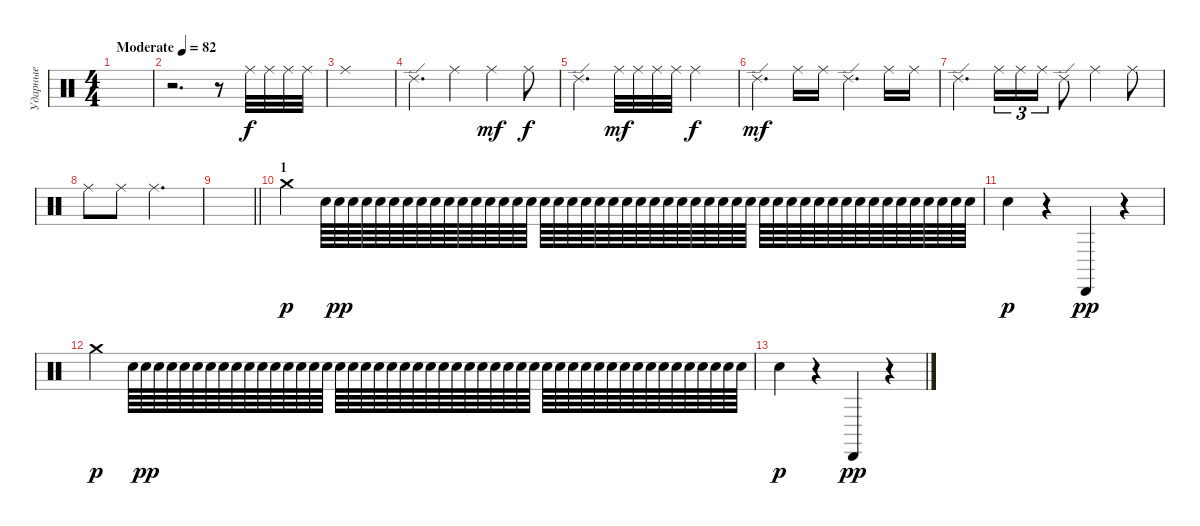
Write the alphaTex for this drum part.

\track ("Ударные" "Ударные") {mute instrument percussion}
\staff {score}
\articulation defaults
\ts (4 4)
\tempo (82 "Moderate")
\clef neutral
\ks c
|
r.2{d} r.8 "Ride (middle)".32 "Ride (middle)".32 "Ride (middle)".32 "Ride (middle)".32 |
"Ride (middle)".1{dy f} |
"Ride (edge) 2".4{d} "Ride (middle)".4 "Ride (middle)".4{dy mf} "Ride (middle)".8{dy f} |
"Ride (edge) 2".4{d} "Ride (middle)".32{dy mf} "Ride (middle)".32 "Ride (middle)".32 "Ride (middle)".32 "Ride (middle)".2{dy f} |
"Ride (edge) 2".4{d dy mf} "Ride (middle)".16 "Ride (middle)".16 "Ride (edge) 2".4{d} "Ride (middle)".16 "Ride (middle)".16 |
"Ride (edge) 2".4{d} "Ride (middle)".16{tu (3 2)} "Ride (middle)".16{tu (3 2)} "Ride (middle)".16{tu (3 2)} "Ride (edge) 2".8 "Ride (middle)".4 "Ride (middle)".8 |
"Ride (middle)".8 "Ride (middle)".8 "Ride (middle)".2{d} |
\barLineRight lightlight
|
\section ("" "1")
"Crash medium (hit)".4{dy p} "Electric Snare (hit)".64 "Electric Snare (hit)".64{dy pp} "Electric Snare (hit)".64 "Electric Snare (hit)".64 "Electric Snare (hit)".64 "Electric Snare (hit)".64 "Electric Snare (hit)".64 "Electric Snare (hit)".64 "Electric Snare (hit)".64 "Electric Snare (hit)".64 "Electric Snare (hit)".64 "Electric Snare (hit)".64 "Electric Snare (hit)".64 "Electric Snare (hit)".64 "Electric Snare (hit)".64 "Electric Snare (hit)".64 "Electric Snare (hit)".64 "Electric Snare (hit)".64 "Electric Snare (hit)".64 "Electric Snare (hit)".64 "Electric Snare (hit)".64 "Electric Snare (hit)".64 "Electric Snare (hit)".64 "Electric Snare (hit)".64 "Electric Snare (hit)".64 "Electric Snare (hit)".64 "Electric Snare (hit)".64 "Electric Snare (hit)".64 "Electric Snare (hit)".64 "Electric Snare (hit)".64 "Electric Snare (hit)".64 "Electric Snare (hit)".64 "Electric Snare (hit)".64 "Electric Snare (hit)".64 "Electric Snare (hit)".64 "Electric Snare (hit)".64 "Electric Snare (hit)".64 "Electric Snare (hit)".64 "Electric Snare (hit)".64 "Electric Snare (hit)".64 "Electric Snare (hit)".64 "Electric Snare (hit)".64 "Electric Snare (hit)".64 "Electric Snare (hit)".64 "Electric Snare (hit)".64 "Electric Snare (hit)".64 "Electric Snare (hit)".64 "Electric Snare (hit)".64 |
"Snare (hit) 2".4{dy p} r.4 "Cabasa (hit)".4{dy pp} r.4 |
"Crash medium (hit)".4{dy p} "Electric Snare (hit)".64 "Electric Snare (hit)".64{dy pp} "Electric Snare (hit)".64 "Electric Snare (hit)".64 "Electric Snare (hit)".64 "Electric Snare (hit)".64 "Electric Snare (hit)".64 "Electric Snare (hit)".64 "Electric Snare (hit)".64 "Electric Snare (hit)".64 "Electric Snare (hit)".64 "Electric Snare (hit)".64 "Electric Snare (hit)".64 "Electric Snare (hit)".64 "Electric Snare (hit)".64 "Electric Snare (hit)".64 "Electric Snare (hit)".64 "Electric Snare (hit)".64 "Electric Snare (hit)".64 "Electric Snare (hit)".64 "Electric Snare (hit)".64 "Electric Snare (hit)".64 "Electric Snare (hit)".64 "Electric Snare (hit)".64 "Electric Snare (hit)".64 "Electric Snare (hit)".64 "Electric Snare (hit)".64 "Electric Snare (hit)".64 "Electric Snare (hit)".64 "Electric Snare (hit)".64 "Electric Snare (hit)".64 "Electric Snare (hit)".64 "Electric Snare (hit)".64 "Electric Snare (hit)".64 "Electric Snare (hit)".64 "Electric Snare (hit)".64 "Electric Snare (hit)".64 "Electric Snare (hit)".64 "Electric Snare (hit)".64 "Electric Snare (hit)".64 "Electric Snare (hit)".64 "Electric Snare (hit)".64 "Electric Snare (hit)".64 "Electric Snare (hit)".64 "Electric Snare (hit)".64 "Electric Snare (hit)".64 "Electric Snare (hit)".64 "Electric Snare (hit)".64 |
"Snare (hit) 2".4{dy p} r.4 "Cabasa (hit)".4{dy pp} r.4
